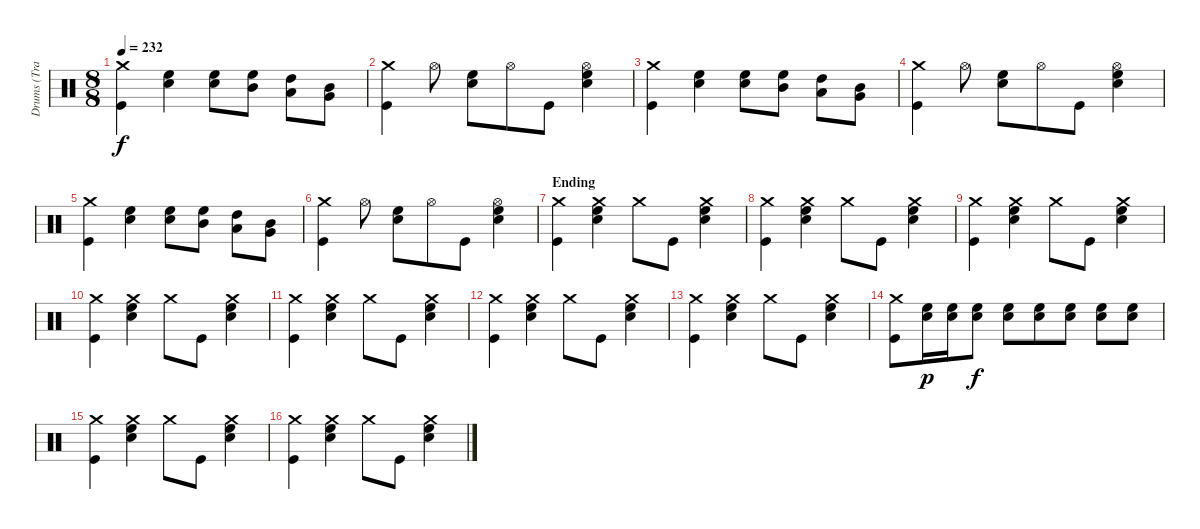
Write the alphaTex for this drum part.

\track ("Drums (Travis)" "Drums (Tra") {instrument percussion}
\staff {score}
\articulation defaults
\ts (8 8)
\tempo 232
\clef neutral
\ks c
("Crash medium (hit)" "Kick (hit)").4{dy f} ("High Floor Tom (hit)" "Electric Snare (hit)").4 ("Electric Snare (hit)" "High Floor Tom (hit)").8 ("Mid Tom (hit)" "High Floor Tom (hit)").8 ("High Tom (hit)" "Low Tom (hit)").8 ("Very Low Tom (hit)" "Mid Tom (hit)").8 |
("Kick (hit)" "Crash medium (hit)").4 "Hi-Hat (open)".8 ("High Floor Tom (hit)" "Electric Snare (hit)").8 "Hi-Hat (open)".8 "Kick (hit)".8 ("High Floor Tom (hit)" "Electric Snare (hit)" "Hi-Hat (open)").4 |
("Crash medium (hit)" "Kick (hit)").4 ("High Floor Tom (hit)" "Electric Snare (hit)").4 ("Electric Snare (hit)" "High Floor Tom (hit)").8 ("Mid Tom (hit)" "High Floor Tom (hit)").8 ("High Tom (hit)" "Low Tom (hit)").8 ("Very Low Tom (hit)" "Mid Tom (hit)").8 |
("Kick (hit)" "Crash medium (hit)").4 "Hi-Hat (open)".8 ("High Floor Tom (hit)" "Electric Snare (hit)").8 "Hi-Hat (open)".8 "Kick (hit)".8 ("High Floor Tom (hit)" "Electric Snare (hit)" "Hi-Hat (open)").4 |
("Crash medium (hit)" "Kick (hit)").4 ("High Floor Tom (hit)" "Electric Snare (hit)").4 ("Electric Snare (hit)" "High Floor Tom (hit)").8 ("Mid Tom (hit)" "High Floor Tom (hit)").8 ("High Tom (hit)" "Low Tom (hit)").8 ("Very Low Tom (hit)" "Mid Tom (hit)").8 |
("Kick (hit)" "Crash medium (hit)").4 "Hi-Hat (open)".8 ("High Floor Tom (hit)" "Electric Snare (hit)").8 "Hi-Hat (open)".8 "Kick (hit)".8 ("High Floor Tom (hit)" "Electric Snare (hit)" "Hi-Hat (open)").4 |
\section ("" "Ending")
("Crash medium (hit)" "Kick (hit)").4 ("High Floor Tom (hit)" "Electric Snare (hit)" "Crash medium (hit)").4 "Crash medium (hit)".8 "Kick (hit)".8 ("Electric Snare (hit)" "High Floor Tom (hit)" "Crash medium (hit)").4 |
("Crash medium (hit)" "Kick (hit)").4 ("High Floor Tom (hit)" "Electric Snare (hit)" "Crash medium (hit)").4 "Crash medium (hit)".8 "Kick (hit)".8 ("Electric Snare (hit)" "High Floor Tom (hit)" "Crash medium (hit)").4 |
("Crash medium (hit)" "Kick (hit)").4 ("High Floor Tom (hit)" "Electric Snare (hit)" "Crash medium (hit)").4 "Crash medium (hit)".8 "Kick (hit)".8 ("Electric Snare (hit)" "High Floor Tom (hit)" "Crash medium (hit)").4 |
("Crash medium (hit)" "Kick (hit)").4 ("High Floor Tom (hit)" "Electric Snare (hit)" "Crash medium (hit)").4 "Crash medium (hit)".8 "Kick (hit)".8 ("Electric Snare (hit)" "High Floor Tom (hit)" "Crash medium (hit)").4 |
("Crash medium (hit)" "Kick (hit)").4 ("High Floor Tom (hit)" "Electric Snare (hit)" "Crash medium (hit)").4 "Crash medium (hit)".8 "Kick (hit)".8 ("Electric Snare (hit)" "High Floor Tom (hit)" "Crash medium (hit)").4 |
("Crash medium (hit)" "Kick (hit)").4 ("High Floor Tom (hit)" "Electric Snare (hit)" "Crash medium (hit)").4 "Crash medium (hit)".8 "Kick (hit)".8 ("Electric Snare (hit)" "High Floor Tom (hit)" "Crash medium (hit)").4 |
("Crash medium (hit)" "Kick (hit)").4 ("High Floor Tom (hit)" "Electric Snare (hit)" "Crash medium (hit)").4 "Crash medium (hit)".8 "Kick (hit)".8 ("Electric Snare (hit)" "High Floor Tom (hit)" "Crash medium (hit)").4 |
("Crash medium (hit)" "Kick (hit)").8 ("High Floor Tom (hit)" "Electric Snare (hit)").16{dy p} ("High Floor Tom (hit)" "Electric Snare (hit)").16 ("High Floor Tom (hit)" "Electric Snare (hit)").8{dy f} ("High Floor Tom (hit)" "Electric Snare (hit)").8 ("High Floor Tom (hit)" "Electric Snare (hit)").8 ("High Floor Tom (hit)" "Electric Snare (hit)").8 ("High Floor Tom (hit)" "Electric Snare (hit)").8 ("High Floor Tom (hit)" "Electric Snare (hit)").8 |
("Crash medium (hit)" "Kick (hit)").4 ("High Floor Tom (hit)" "Electric Snare (hit)" "Crash medium (hit)").4 "Crash medium (hit)".8 "Kick (hit)".8 ("Electric Snare (hit)" "High Floor Tom (hit)" "Crash medium (hit)").4 |
("Crash medium (hit)" "Kick (hit)").4 ("High Floor Tom (hit)" "Electric Snare (hit)" "Crash medium (hit)").4 "Crash medium (hit)".8 "Kick (hit)".8 ("Electric Snare (hit)" "High Floor Tom (hit)" "Crash medium (hit)").4
